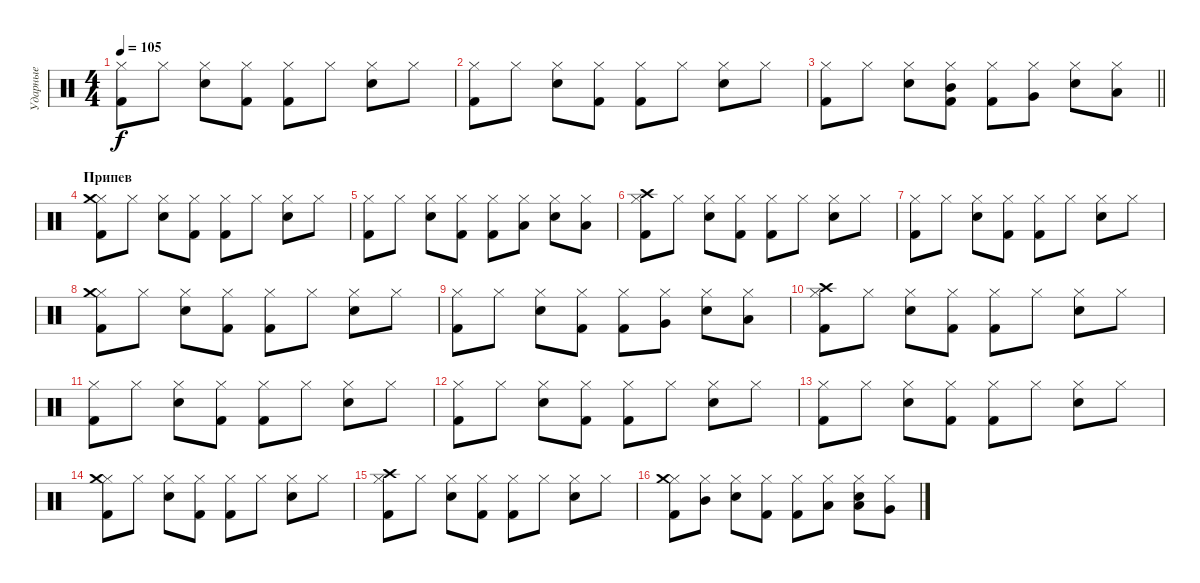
\track ("Ударные" "Ударные") {instrument percussion}
\staff {score}
\articulation defaults
\ts (4 4)
\tempo 105
\clef neutral
\ks c
("Kick (hit) 2" "Hi-Hat (closed)").8{dy f} "Hi-Hat (closed)".8 ("Hi-Hat (closed)" "Electric Snare (hit)").8 ("Kick (hit) 2" "Hi-Hat (closed)").8 ("Kick (hit) 2" "Hi-Hat (closed)").8 "Hi-Hat (closed)".8 ("Electric Snare (hit)" "Hi-Hat (closed)").8 "Hi-Hat (closed)".8 |
("Kick (hit) 2" "Hi-Hat (closed)").8 "Hi-Hat (closed)".8 ("Hi-Hat (closed)" "Electric Snare (hit)").8 ("Kick (hit) 2" "Hi-Hat (closed)").8 ("Kick (hit) 2" "Hi-Hat (closed)").8 "Hi-Hat (closed)".8 ("Electric Snare (hit)" "Hi-Hat (closed)").8 "Hi-Hat (closed)".8 |
\barLineRight lightlight
("Kick (hit) 2" "Hi-Hat (closed)").8 "Hi-Hat (closed)".8 ("Hi-Hat (closed)" "Electric Snare (hit)").8 ("Kick (hit) 2" "Hi-Hat (closed)" "Mid Tom (hit)").8 ("Kick (hit) 2" "Hi-Hat (closed)").8 ("Hi-Hat (closed)" "Very Low Tom (hit)").8 ("Electric Snare (hit)" "Hi-Hat (closed)").8 ("Hi-Hat (closed)" "Low Tom (hit)").8 |
\section ("" "Припев")
("Kick (hit) 2" "Hi-Hat (closed)" "Crash medium (hit)").8 "Hi-Hat (closed)".8 ("Hi-Hat (closed)" "Electric Snare (hit)").8 ("Kick (hit) 2" "Hi-Hat (closed)").8 ("Kick (hit) 2" "Hi-Hat (closed)").8 "Hi-Hat (closed)".8 ("Electric Snare (hit)" "Hi-Hat (closed)").8 "Hi-Hat (closed)".8 |
("Kick (hit) 2" "Hi-Hat (closed)").8 "Hi-Hat (closed)".8 ("Hi-Hat (closed)" "Electric Snare (hit)").8 ("Kick (hit) 2" "Hi-Hat (closed)").8 ("Kick (hit) 2" "Hi-Hat (closed)").8 ("Hi-Hat (closed)" "Low Floor Tom (hit)").8 ("Electric Snare (hit)" "Hi-Hat (closed)").8 ("Hi-Hat (closed)" "Low Tom (hit)").8 |
("Kick (hit) 2" "Hi-Hat (closed)" "Crash high (hit)").8 "Hi-Hat (closed)".8 ("Hi-Hat (closed)" "Electric Snare (hit)").8 ("Kick (hit) 2" "Hi-Hat (closed)").8 ("Kick (hit) 2" "Hi-Hat (closed)").8 "Hi-Hat (closed)".8 ("Electric Snare (hit)" "Hi-Hat (closed)").8 "Hi-Hat (closed)".8 |
("Kick (hit) 2" "Hi-Hat (closed)").8 "Hi-Hat (closed)".8 ("Hi-Hat (closed)" "Electric Snare (hit)").8 ("Kick (hit) 2" "Hi-Hat (closed)").8 ("Kick (hit) 2" "Hi-Hat (closed)").8 "Hi-Hat (closed)".8 ("Electric Snare (hit)" "Hi-Hat (closed)").8 "Hi-Hat (closed)".8 |
("Kick (hit) 2" "Hi-Hat (closed)" "Crash medium (hit)").8 "Hi-Hat (closed)".8 ("Hi-Hat (closed)" "Electric Snare (hit)").8 ("Kick (hit) 2" "Hi-Hat (closed)").8 ("Kick (hit) 2" "Hi-Hat (closed)").8 "Hi-Hat (closed)".8 ("Electric Snare (hit)" "Hi-Hat (closed)").8 "Hi-Hat (closed)".8 |
("Kick (hit) 2" "Hi-Hat (closed)").8 "Hi-Hat (closed)".8 ("Hi-Hat (closed)" "Electric Snare (hit)").8 ("Kick (hit) 2" "Hi-Hat (closed)").8 ("Kick (hit) 2" "Hi-Hat (closed)").8 ("Hi-Hat (closed)" "Very Low Tom (hit)").8 ("Electric Snare (hit)" "Hi-Hat (closed)").8 ("Hi-Hat (closed)" "Low Tom (hit)").8 |
("Kick (hit) 2" "Hi-Hat (closed)" "Crash high (hit)").8 "Hi-Hat (closed)".8 ("Hi-Hat (closed)" "Electric Snare (hit)").8 ("Kick (hit) 2" "Hi-Hat (closed)").8 ("Kick (hit) 2" "Hi-Hat (closed)").8 "Hi-Hat (closed)".8 ("Electric Snare (hit)" "Hi-Hat (closed)").8 "Hi-Hat (closed)".8 |
("Kick (hit) 2" "Hi-Hat (closed)").8 "Hi-Hat (closed)".8 ("Hi-Hat (closed)" "Electric Snare (hit)").8 ("Kick (hit) 2" "Hi-Hat (closed)").8 ("Kick (hit) 2" "Hi-Hat (closed)").8 "Hi-Hat (closed)".8 ("Electric Snare (hit)" "Hi-Hat (closed)").8 "Hi-Hat (closed)".8 |
("Kick (hit) 2" "Hi-Hat (closed)").8 "Hi-Hat (closed)".8 ("Hi-Hat (closed)" "Electric Snare (hit)").8 ("Kick (hit) 2" "Hi-Hat (closed)").8 ("Kick (hit) 2" "Hi-Hat (closed)").8 "Hi-Hat (closed)".8 ("Electric Snare (hit)" "Hi-Hat (closed)").8 "Hi-Hat (closed)".8 |
("Kick (hit) 2" "Hi-Hat (closed)").8 "Hi-Hat (closed)".8 ("Hi-Hat (closed)" "Electric Snare (hit)").8 ("Kick (hit) 2" "Hi-Hat (closed)").8 ("Kick (hit) 2" "Hi-Hat (closed)").8 "Hi-Hat (closed)".8 ("Electric Snare (hit)" "Hi-Hat (closed)").8 "Hi-Hat (closed)".8 |
("Kick (hit) 2" "Hi-Hat (closed)" "Crash medium (hit)").8 "Hi-Hat (closed)".8 ("Hi-Hat (closed)" "Electric Snare (hit)").8 ("Kick (hit) 2" "Hi-Hat (closed)").8 ("Kick (hit) 2" "Hi-Hat (closed)").8 "Hi-Hat (closed)".8 ("Electric Snare (hit)" "Hi-Hat (closed)").8 "Hi-Hat (closed)".8 |
("Kick (hit) 2" "Hi-Hat (closed)" "Crash high (hit)").8 "Hi-Hat (closed)".8 ("Hi-Hat (closed)" "Electric Snare (hit)").8 ("Kick (hit) 2" "Hi-Hat (closed)").8 ("Kick (hit) 2" "Hi-Hat (closed)").8 "Hi-Hat (closed)".8 ("Electric Snare (hit)" "Hi-Hat (closed)").8 "Hi-Hat (closed)".8 |
("Kick (hit) 2" "Hi-Hat (closed)" "Crash medium (hit)").8 ("Hi-Hat (closed)" "Mid Tom (hit)").8 ("Hi-Hat (closed)" "Electric Snare (hit)").8 ("Kick (hit) 2" "Hi-Hat (closed)").8 ("Kick (hit) 2" "Hi-Hat (closed)").8 ("Hi-Hat (closed)" "Low Tom (hit)").8 ("Electric Snare (hit)" "Hi-Hat (closed)" "Low Floor Tom (hit)").8 ("Hi-Hat (closed)" "Very Low Tom (hit)").8
